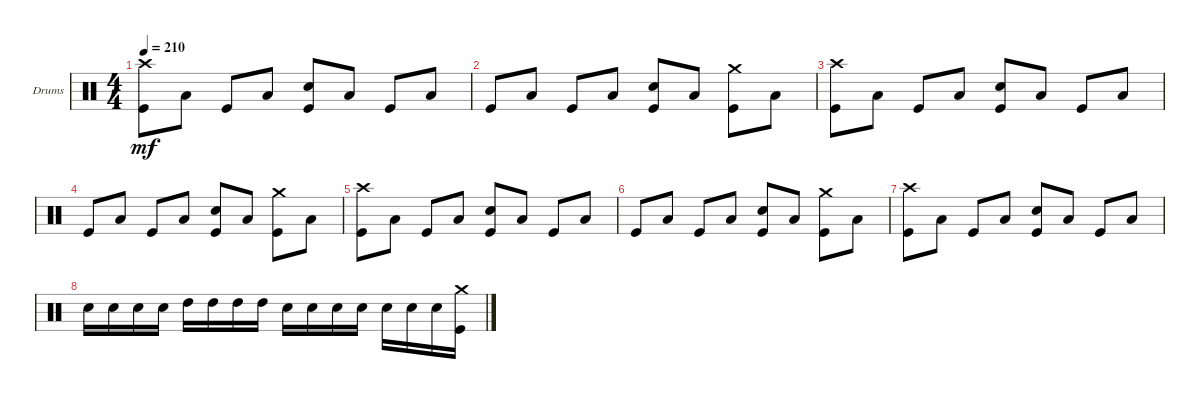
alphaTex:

\defaultSystemsLayout 4
\bracketExtendMode groupsimilarinstruments
\firstSystemTrackNameOrientation horizontal
\otherSystemsTrackNameOrientation horizontal
\track ("Dan Johnson (Drums)" "Drums") {instrument percussion}
\staff {score}
\articulation defaults
\ts (4 4)
\tempo 210
\clef neutral
\ks c
("Kick (hit)" "Crash high (hit)").8{dy mf} "Low Tom (hit)".8 "Kick (hit)".8 "Low Tom (hit)".8 ("Snare (hit) 2" "Kick (hit)").8 "Low Tom (hit)".8 "Kick (hit)".8 "Low Tom (hit)".8 |
"Kick (hit)".8 "Low Tom (hit)".8 "Kick (hit)".8 "Low Tom (hit)".8 ("Snare (hit) 2" "Kick (hit)").8 "Low Tom (hit)".8 ("Kick (hit)" "Crash medium (hit)").8 "Low Tom (hit)".8 |
("Kick (hit)" "Crash high (hit)").8 "Low Tom (hit)".8 "Kick (hit)".8 "Low Tom (hit)".8 ("Snare (hit) 2" "Kick (hit)").8 "Low Tom (hit)".8 "Kick (hit)".8 "Low Tom (hit)".8 |
"Kick (hit)".8 "Low Tom (hit)".8 "Kick (hit)".8 "Low Tom (hit)".8 ("Snare (hit) 2" "Kick (hit)").8 "Low Tom (hit)".8 ("Kick (hit)" "Crash medium (hit)").8 "Low Tom (hit)".8 |
("Kick (hit)" "Crash high (hit)").8 "Low Tom (hit)".8 "Kick (hit)".8 "Low Tom (hit)".8 ("Snare (hit) 2" "Kick (hit)").8 "Low Tom (hit)".8 "Kick (hit)".8 "Low Tom (hit)".8 |
"Kick (hit)".8 "Low Tom (hit)".8 "Kick (hit)".8 "Low Tom (hit)".8 ("Snare (hit) 2" "Kick (hit)").8 "Low Tom (hit)".8 ("Kick (hit)" "Crash medium (hit)").8 "Low Tom (hit)".8 |
("Kick (hit)" "Crash high (hit)").8 "Low Tom (hit)".8 "Kick (hit)".8 "Low Tom (hit)".8 ("Snare (hit) 2" "Kick (hit)").8 "Low Tom (hit)".8 "Kick (hit)".8 "Low Tom (hit)".8 |
"Snare (hit) 2".16 "Snare (hit) 2".16 "Snare (hit) 2".16 "Snare (hit) 2".16 "High Tom (hit)".16 "High Tom (hit)".16 "High Tom (hit)".16 "High Tom (hit)".16 "Snare (hit) 2".16 "Snare (hit) 2".16 "Snare (hit) 2".16 "Snare (hit) 2".16 "Snare (hit) 2".16 "Snare (hit) 2".16 "Snare (hit) 2".16 ("Kick (hit)" "Crash medium (hit)").16
